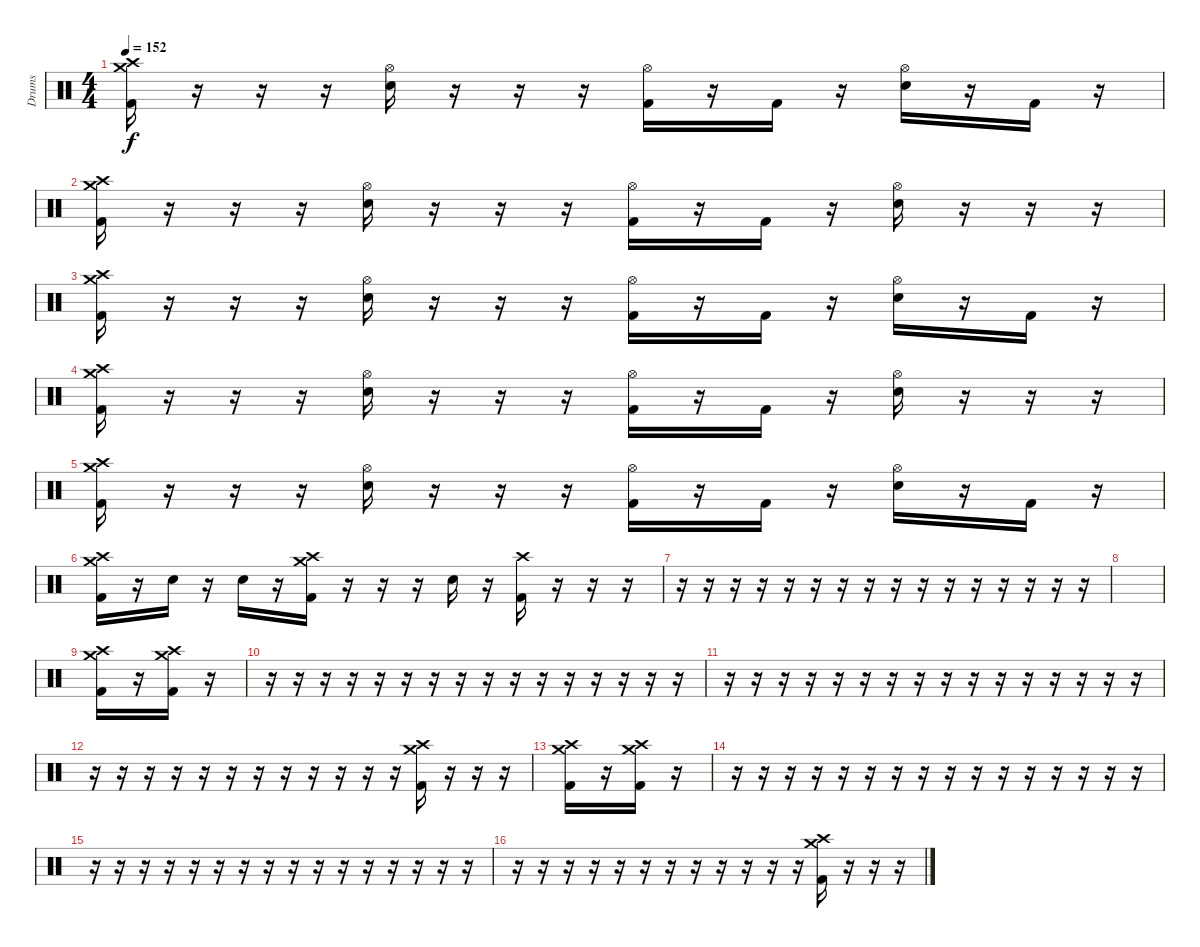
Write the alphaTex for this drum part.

\track ("Drums" "Drums") {instrument percussion}
\staff {score}
\articulation defaults
\ts (4 4)
\tempo 152
\clef neutral
\ks c
("Crash high (hit)" "Crash medium (hit)" "Kick (hit) 2").16{dy f} r.16 r.16 r.16 ("Hi-Hat (open)" "Electric Snare (hit)").16 r.16 r.16 r.16 ("Hi-Hat (open)" "Kick (hit) 2").16 r.16 "Kick (hit) 2".16 r.16 ("Hi-Hat (open)" "Electric Snare (hit)").16 r.16 "Kick (hit) 2".16 r.16 |
("Crash high (hit)" "Crash medium (hit)" "Kick (hit) 2").16 r.16 r.16 r.16 ("Hi-Hat (open)" "Electric Snare (hit)").16 r.16 r.16 r.16 ("Hi-Hat (open)" "Kick (hit) 2").16 r.16 "Kick (hit) 2".16 r.16 ("Hi-Hat (open)" "Electric Snare (hit)").16 r.16 r.16 r.16 |
("Crash high (hit)" "Crash medium (hit)" "Kick (hit) 2").16 r.16 r.16 r.16 ("Hi-Hat (open)" "Electric Snare (hit)").16 r.16 r.16 r.16 ("Hi-Hat (open)" "Kick (hit) 2").16 r.16 "Kick (hit) 2".16 r.16 ("Hi-Hat (open)" "Electric Snare (hit)").16 r.16 "Kick (hit) 2".16 r.16 |
("Crash high (hit)" "Crash medium (hit)" "Kick (hit) 2").16 r.16 r.16 r.16 ("Hi-Hat (open)" "Electric Snare (hit)").16 r.16 r.16 r.16 ("Hi-Hat (open)" "Kick (hit) 2").16 r.16 "Kick (hit) 2".16 r.16 ("Hi-Hat (open)" "Electric Snare (hit)").16 r.16 r.16 r.16 |
("Crash high (hit)" "Crash medium (hit)" "Kick (hit) 2").16 r.16 r.16 r.16 ("Hi-Hat (open)" "Electric Snare (hit)").16 r.16 r.16 r.16 ("Hi-Hat (open)" "Kick (hit) 2").16 r.16 "Kick (hit) 2".16 r.16 ("Hi-Hat (open)" "Electric Snare (hit)").16 r.16 "Kick (hit) 2".16 r.16 |
("Crash high (hit)" "Crash medium (hit)" "Kick (hit) 2").16 r.16 "Electric Snare (hit)".16 r.16 "Electric Snare (hit)".16 r.16 ("Crash high (hit)" "Crash medium (hit)" "Kick (hit) 2").16 r.16 r.16 r.16 "Electric Snare (hit)".16 r.16 ("Crash high (hit)" "Kick (hit) 2").16 r.16 r.16 r.16 |
r.16 r.16 r.16 r.16 r.16 r.16 r.16 r.16 r.16 r.16 r.16 r.16 r.16 r.16 r.16 r.16 |
|
("Crash high (hit)" "Crash medium (hit)" "Kick (hit) 2").16 r.16 ("Crash high (hit)" "Crash medium (hit)" "Kick (hit) 2").16 r.16 |
r.16 r.16 r.16 r.16 r.16 r.16 r.16 r.16 r.16 r.16 r.16 r.16 r.16 r.16 r.16 r.16 |
r.16 r.16 r.16 r.16 r.16 r.16 r.16 r.16 r.16 r.16 r.16 r.16 r.16 r.16 r.16 r.16 |
r.16 r.16 r.16 r.16 r.16 r.16 r.16 r.16 r.16 r.16 r.16 r.16 ("Crash high (hit)" "Crash medium (hit)" "Kick (hit) 2").16 r.16 r.16 r.16 |
("Crash high (hit)" "Crash medium (hit)" "Kick (hit) 2").16 r.16 ("Crash high (hit)" "Crash medium (hit)" "Kick (hit) 2").16 r.16 |
r.16 r.16 r.16 r.16 r.16 r.16 r.16 r.16 r.16 r.16 r.16 r.16 r.16 r.16 r.16 r.16 |
r.16 r.16 r.16 r.16 r.16 r.16 r.16 r.16 r.16 r.16 r.16 r.16 r.16 r.16 r.16 r.16 |
r.16 r.16 r.16 r.16 r.16 r.16 r.16 r.16 r.16 r.16 r.16 r.16 ("Crash high (hit)" "Crash medium (hit)" "Kick (hit) 2").16 r.16 r.16 r.16
